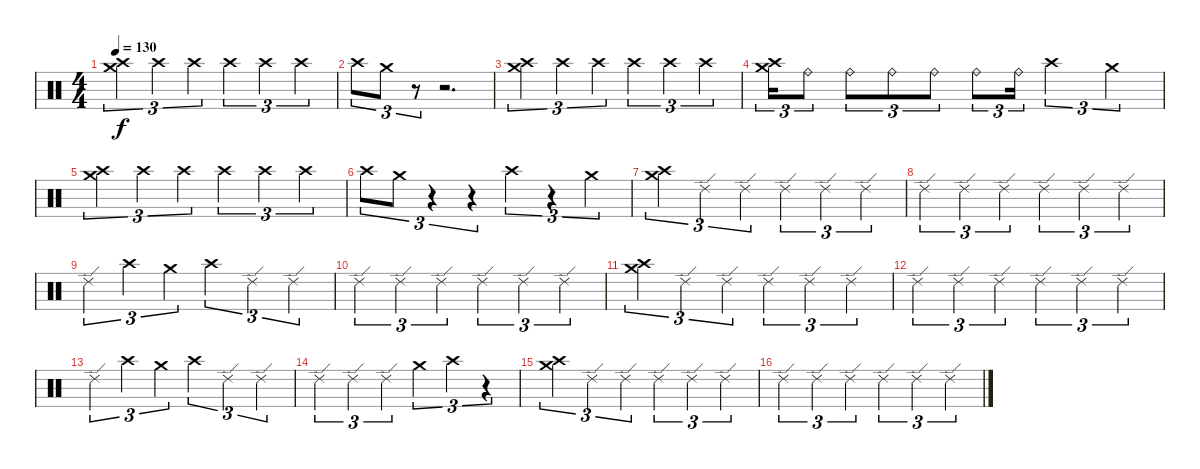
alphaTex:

\track "" {instrument percussion}
\staff {score}
\articulation defaults
\ts (4 4)
\tempo 130
\clef neutral
\ks c
("Crash medium (hit)" "Crash high (hit)").4{tu (3 2) dy f} "Crash high (hit)".4{tu (3 2)} "Crash high (hit)".4{tu (3 2)} "Crash high (hit)".4{tu (3 2)} "Crash high (hit)".4{tu (3 2)} "Crash high (hit)".4{tu (3 2)} |
"Crash high (hit)".8{tu (3 2)} "Crash medium (hit)".8{tu (3 2)} r.8{tu (3 2)} r.2{d} |
("Crash medium (hit)" "Crash high (hit)").4{tu (3 2)} "Crash high (hit)".4{tu (3 2)} "Crash high (hit)".4{tu (3 2)} "Crash high (hit)".4{tu (3 2)} "Crash high (hit)".4{tu (3 2)} "Crash high (hit)".4{tu (3 2)} |
("Crash medium (hit)" "Crash high (hit)").16{tu (3 2)} "Ride (bell)".8{tu (3 2)} "Ride (bell)".8{tu (3 2)} "Ride (bell)".8{tu (3 2)} "Ride (bell)".8{tu (3 2)} "Ride (bell)".8{tu (3 2)} "Ride (bell)".16{tu (3 2)} "Crash high (hit)".2{tu (3 2)} "Crash medium (hit)".4{tu (3 2)} |
("Crash medium (hit)" "Crash high (hit)").4{tu (3 2)} "Crash high (hit)".4{tu (3 2)} "Crash high (hit)".4{tu (3 2)} "Crash high (hit)".4{tu (3 2)} "Crash high (hit)".4{tu (3 2)} "Crash high (hit)".4{tu (3 2)} |
"Crash high (hit)".8{tu (3 2)} "Crash medium (hit)".8{tu (3 2)} r.4{tu (3 2)} r.4{tu (3 2)} "Crash high (hit)".4{tu (3 2)} r.4{tu (3 2)} "Crash medium (hit)".4{tu (3 2)} |
("Crash medium (hit)" "Crash high (hit)").4{tu (3 2)} "Ride (edge) 2".4{tu (3 2)} "Ride (edge) 2".4{tu (3 2)} "Ride (edge) 2".4{tu (3 2)} "Ride (edge) 2".4{tu (3 2)} "Ride (edge) 2".4{tu (3 2)} |
"Ride (edge) 2".4{tu (3 2)} "Ride (edge) 2".4{tu (3 2)} "Ride (edge) 2".4{tu (3 2)} "Ride (edge) 2".4{tu (3 2)} "Ride (edge) 2".4{tu (3 2)} "Ride (edge) 2".4{tu (3 2)} |
"Ride (edge) 2".4{tu (3 2)} "Crash high (hit)".4{tu (3 2)} "Crash medium (hit)".4{tu (3 2)} "Crash high (hit)".4{tu (3 2)} "Ride (edge) 2".4{tu (3 2)} "Ride (edge) 2".4{tu (3 2)} |
"Ride (edge) 2".4{tu (3 2)} "Ride (edge) 2".4{tu (3 2)} "Ride (edge) 2".4{tu (3 2)} "Ride (edge) 2".4{tu (3 2)} "Ride (edge) 2".4{tu (3 2)} "Ride (edge) 2".4{tu (3 2)} |
("Crash medium (hit)" "Crash high (hit)").4{tu (3 2)} "Ride (edge) 2".4{tu (3 2)} "Ride (edge) 2".4{tu (3 2)} "Ride (edge) 2".4{tu (3 2)} "Ride (edge) 2".4{tu (3 2)} "Ride (edge) 2".4{tu (3 2)} |
"Ride (edge) 2".4{tu (3 2)} "Ride (edge) 2".4{tu (3 2)} "Ride (edge) 2".4{tu (3 2)} "Ride (edge) 2".4{tu (3 2)} "Ride (edge) 2".4{tu (3 2)} "Ride (edge) 2".4{tu (3 2)} |
"Ride (edge) 2".4{tu (3 2)} "Crash high (hit)".4{tu (3 2)} "Crash medium (hit)".4{tu (3 2)} "Crash high (hit)".4{tu (3 2)} "Ride (edge) 2".4{tu (3 2)} "Ride (edge) 2".4{tu (3 2)} |
"Ride (edge) 2".4{tu (3 2)} "Ride (edge) 2".4{tu (3 2)} "Ride (edge) 2".4{tu (3 2)} "Crash medium (hit)".4{tu (3 2)} "Crash high (hit)".4{tu (3 2)} r.4{tu (3 2)} |
("Crash medium (hit)" "Crash high (hit)").4{tu (3 2)} "Ride (edge) 2".4{tu (3 2)} "Ride (edge) 2".4{tu (3 2)} "Ride (edge) 2".4{tu (3 2)} "Ride (edge) 2".4{tu (3 2)} "Ride (edge) 2".4{tu (3 2)} |
"Ride (edge) 2".4{tu (3 2)} "Ride (edge) 2".4{tu (3 2)} "Ride (edge) 2".4{tu (3 2)} "Ride (edge) 2".4{tu (3 2)} "Ride (edge) 2".4{tu (3 2)} "Ride (edge) 2".4{tu (3 2)}
